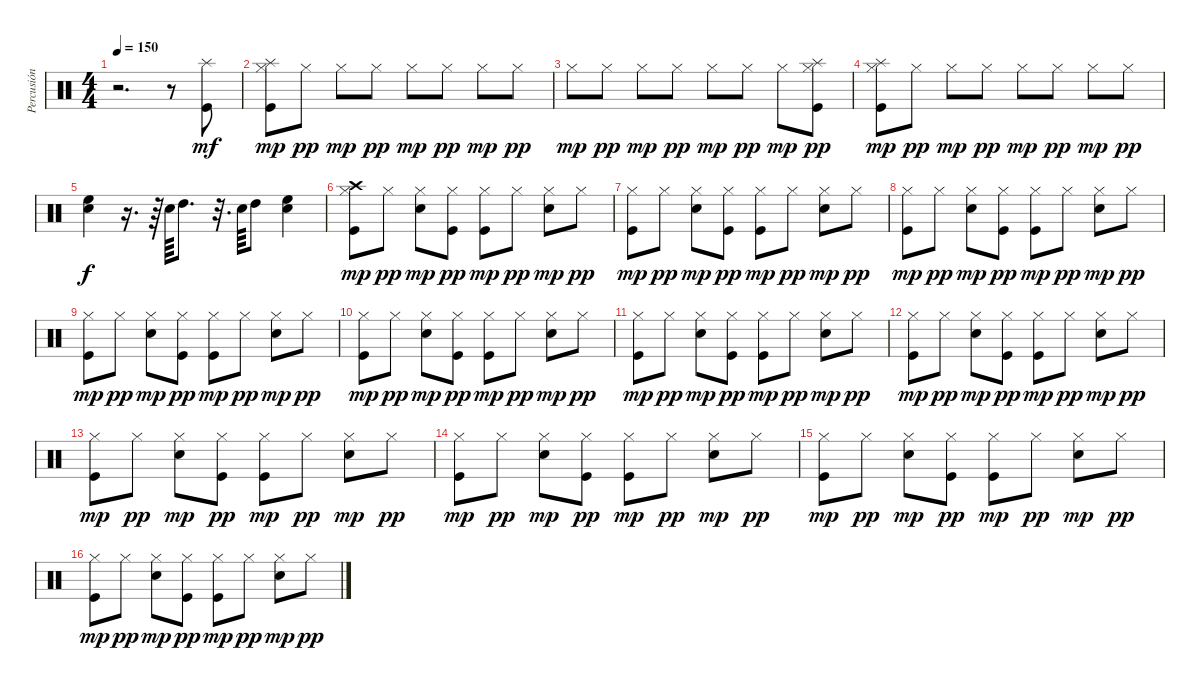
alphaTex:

\track ("Percusión" "Percusión") {instrument percussion}
\staff {score}
\articulation defaults
\ts (4 4)
\tempo 150
\clef neutral
\ks c
r.2{d dy mf} r.8 ("Splash (hit)" "Kick (hit)").8 |
("Splash (hit)" "Hi-Hat (closed)" "Kick (hit)").8{dy mp} "Hi-Hat (closed)".8{dy pp} "Hi-Hat (closed)".8{dy mp} "Hi-Hat (closed)".8{dy pp} "Hi-Hat (closed)".8{dy mp} "Hi-Hat (closed)".8{dy pp} "Hi-Hat (closed)".8{dy mp} "Hi-Hat (closed)".8{dy pp} |
"Hi-Hat (closed)".8{dy mp} "Hi-Hat (closed)".8{dy pp} "Hi-Hat (closed)".8{dy mp} "Hi-Hat (closed)".8{dy pp} "Hi-Hat (closed)".8{dy mp} "Hi-Hat (closed)".8{dy pp} "Hi-Hat (closed)".8{dy mp} ("Splash (hit)" "Hi-Hat (closed)" "Kick (hit)").8{dy pp} |
("Splash (hit)" "Hi-Hat (closed)" "Kick (hit)").8{dy mp} "Hi-Hat (closed)".8{dy pp} "Hi-Hat (closed)".8{dy mp} "Hi-Hat (closed)".8{dy pp} "Hi-Hat (closed)".8{dy mp} "Hi-Hat (closed)".8{dy pp} "Hi-Hat (closed)".8{dy mp} "Hi-Hat (closed)".8{dy pp} |
("High Floor Tom (hit)" "Snare (hit) 2").4{dy f} r.16{d} r.64 "Snare (hit) 2".64 "High Tom (hit)".8{d} r.32{d} "Snare (hit) 2".64 "High Tom (hit)".8 ("High Floor Tom (hit)" "Snare (hit) 2").4 |
("Crash high (hit)" "Hi-Hat (closed)" "Kick (hit)").8{dy mp} "Hi-Hat (closed)".8{dy pp} ("Hi-Hat (closed)" "Snare (hit) 2").8{dy mp} ("Hi-Hat (closed)" "Kick (hit)").8{dy pp} ("Hi-Hat (closed)" "Kick (hit)").8{dy mp} "Hi-Hat (closed)".8{dy pp} ("Hi-Hat (closed)" "Snare (hit) 2").8{dy mp} "Hi-Hat (closed)".8{dy pp} |
("Hi-Hat (closed)" "Kick (hit)").8{dy mp} "Hi-Hat (closed)".8{dy pp} ("Hi-Hat (closed)" "Snare (hit) 2").8{dy mp} ("Hi-Hat (closed)" "Kick (hit)").8{dy pp} ("Hi-Hat (closed)" "Kick (hit)").8{dy mp} "Hi-Hat (closed)".8{dy pp} ("Hi-Hat (closed)" "Snare (hit) 2").8{dy mp} "Hi-Hat (closed)".8{dy pp} |
("Hi-Hat (closed)" "Kick (hit)").8{dy mp} "Hi-Hat (closed)".8{dy pp} ("Hi-Hat (closed)" "Snare (hit) 2").8{dy mp} ("Hi-Hat (closed)" "Kick (hit)").8{dy pp} ("Hi-Hat (closed)" "Kick (hit)").8{dy mp} "Hi-Hat (closed)".8{dy pp} ("Hi-Hat (closed)" "Snare (hit) 2").8{dy mp} "Hi-Hat (closed)".8{dy pp} |
("Hi-Hat (closed)" "Kick (hit)").8{dy mp} "Hi-Hat (closed)".8{dy pp} ("Hi-Hat (closed)" "Snare (hit) 2").8{dy mp} ("Hi-Hat (closed)" "Kick (hit)").8{dy pp} ("Hi-Hat (closed)" "Kick (hit)").8{dy mp} "Hi-Hat (closed)".8{dy pp} ("Hi-Hat (closed)" "Snare (hit) 2").8{dy mp} "Hi-Hat (closed)".8{dy pp} |
("Hi-Hat (closed)" "Kick (hit)").8{dy mp} "Hi-Hat (closed)".8{dy pp} ("Hi-Hat (closed)" "Snare (hit) 2").8{dy mp} ("Hi-Hat (closed)" "Kick (hit)").8{dy pp} ("Hi-Hat (closed)" "Kick (hit)").8{dy mp} "Hi-Hat (closed)".8{dy pp} ("Hi-Hat (closed)" "Snare (hit) 2").8{dy mp} "Hi-Hat (closed)".8{dy pp} |
("Hi-Hat (closed)" "Kick (hit)").8{dy mp} "Hi-Hat (closed)".8{dy pp} ("Hi-Hat (closed)" "Snare (hit) 2").8{dy mp} ("Hi-Hat (closed)" "Kick (hit)").8{dy pp} ("Hi-Hat (closed)" "Kick (hit)").8{dy mp} "Hi-Hat (closed)".8{dy pp} ("Hi-Hat (closed)" "Snare (hit) 2").8{dy mp} "Hi-Hat (closed)".8{dy pp} |
("Hi-Hat (closed)" "Kick (hit)").8{dy mp} "Hi-Hat (closed)".8{dy pp} ("Hi-Hat (closed)" "Snare (hit) 2").8{dy mp} ("Hi-Hat (closed)" "Kick (hit)").8{dy pp} ("Hi-Hat (closed)" "Kick (hit)").8{dy mp} "Hi-Hat (closed)".8{dy pp} ("Hi-Hat (closed)" "Snare (hit) 2").8{dy mp} "Hi-Hat (closed)".8{dy pp} |
("Hi-Hat (closed)" "Kick (hit)").8{dy mp} "Hi-Hat (closed)".8{dy pp} ("Hi-Hat (closed)" "Snare (hit) 2").8{dy mp} ("Hi-Hat (closed)" "Kick (hit)").8{dy pp} ("Hi-Hat (closed)" "Kick (hit)").8{dy mp} "Hi-Hat (closed)".8{dy pp} ("Hi-Hat (closed)" "Snare (hit) 2").8{dy mp} "Hi-Hat (closed)".8{dy pp} |
("Hi-Hat (closed)" "Kick (hit)").8{dy mp} "Hi-Hat (closed)".8{dy pp} ("Hi-Hat (closed)" "Snare (hit) 2").8{dy mp} ("Hi-Hat (closed)" "Kick (hit)").8{dy pp} ("Hi-Hat (closed)" "Kick (hit)").8{dy mp} "Hi-Hat (closed)".8{dy pp} ("Hi-Hat (closed)" "Snare (hit) 2").8{dy mp} "Hi-Hat (closed)".8{dy pp} |
("Hi-Hat (closed)" "Kick (hit)").8{dy mp} "Hi-Hat (closed)".8{dy pp} ("Hi-Hat (closed)" "Snare (hit) 2").8{dy mp} ("Hi-Hat (closed)" "Kick (hit)").8{dy pp} ("Hi-Hat (closed)" "Kick (hit)").8{dy mp} "Hi-Hat (closed)".8{dy pp} ("Hi-Hat (closed)" "Snare (hit) 2").8{dy mp} "Hi-Hat (closed)".8{dy pp} |
("Hi-Hat (closed)" "Kick (hit)").8{dy mp} "Hi-Hat (closed)".8{dy pp} ("Hi-Hat (closed)" "Snare (hit) 2").8{dy mp} ("Hi-Hat (closed)" "Kick (hit)").8{dy pp} ("Hi-Hat (closed)" "Kick (hit)").8{dy mp} "Hi-Hat (closed)".8{dy pp} ("Hi-Hat (closed)" "Snare (hit) 2").8{dy mp} "Hi-Hat (closed)".8{dy pp}
